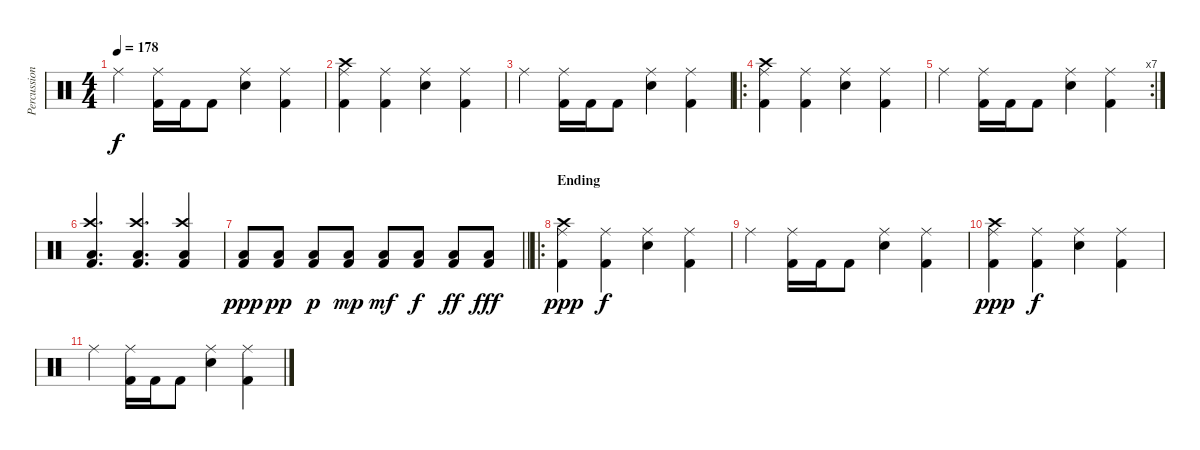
\track ("Percussion" "Percussion") {instrument percussion}
\staff {score}
\articulation defaults
\ts (4 4)
\tempo 178
\clef neutral
\ks c "Ride (middle)".4{dy f}
("Kick (hit) 2" "Ride (middle)").16 "Kick (hit) 2".16 "Kick (hit) 2".8 ("Snare (hit) 2" "Ride (middle)").4 ("Kick (hit) 2" "Ride (middle)").4 |
("Crash high (hit)" "Kick (hit) 2" "Ride (middle)").4 ("Kick (hit) 2" "Ride (middle)").4 ("Snare (hit) 2" "Ride (middle)").4 ("Kick (hit) 2" "Ride (middle)").4 |
"Ride (middle)".4 ("Kick (hit) 2" "Ride (middle)").16 "Kick (hit) 2".16 "Kick (hit) 2".8 ("Snare (hit) 2" "Ride (middle)").4 ("Kick (hit) 2" "Ride (middle)").4 |
\ro
("Crash high (hit)" "Kick (hit) 2" "Ride (middle)").4 ("Kick (hit) 2" "Ride (middle)").4 ("Snare (hit) 2" "Ride (middle)").4 ("Kick (hit) 2" "Ride (middle)").4 |
\rc 7 "Ride (middle)".4
("Kick (hit) 2" "Ride (middle)").16 "Kick (hit) 2".16 "Kick (hit) 2".8 ("Snare (hit) 2" "Ride (middle)").4 ("Kick (hit) 2" "Ride (middle)").4 |
("Crash high (hit)" "Kick (hit) 2" "Low Floor Tom (hit)").4{d} ("Crash high (hit)" "Kick (hit) 2" "Low Floor Tom (hit)").4{d} ("Crash high (hit)" "Kick (hit) 2" "Low Floor Tom (hit)").4 |
\barLineRight lightlight
("Kick (hit) 2" "Low Floor Tom (hit)").8{dy ppp} ("Kick (hit) 2" "Low Floor Tom (hit)").8{dy pp} ("Kick (hit) 2" "Low Floor Tom (hit)").8{dy p} ("Kick (hit) 2" "Low Floor Tom (hit)").8{dy mp} ("Kick (hit) 2" "Low Floor Tom (hit)").8{dy mf} ("Kick (hit) 2" "Low Floor Tom (hit)").8{dy f} ("Kick (hit) 2" "Low Floor Tom (hit)").8{dy ff} ("Kick (hit) 2" "Low Floor Tom (hit)").8{dy fff} |
\ro
\section ("" "Ending")
("Crash high (hit)" "Kick (hit) 2" "Ride (middle)").4{dy ppp} ("Kick (hit) 2" "Ride (middle)").4{dy f} ("Snare (hit) 2" "Ride (middle)").4 ("Kick (hit) 2" "Ride (middle)").4 |
"Ride (middle)".4 ("Kick (hit) 2" "Ride (middle)").16 "Kick (hit) 2".16 "Kick (hit) 2".8 ("Snare (hit) 2" "Ride (middle)").4 ("Kick (hit) 2" "Ride (middle)").4 |
("Crash high (hit)" "Kick (hit) 2" "Ride (middle)").4{dy ppp} ("Kick (hit) 2" "Ride (middle)").4{dy f} ("Snare (hit) 2" "Ride (middle)").4 ("Kick (hit) 2" "Ride (middle)").4 |
"Ride (middle)".4 ("Kick (hit) 2" "Ride (middle)").16 "Kick (hit) 2".16 "Kick (hit) 2".8 ("Snare (hit) 2" "Ride (middle)").4 ("Kick (hit) 2" "Ride (middle)").4
